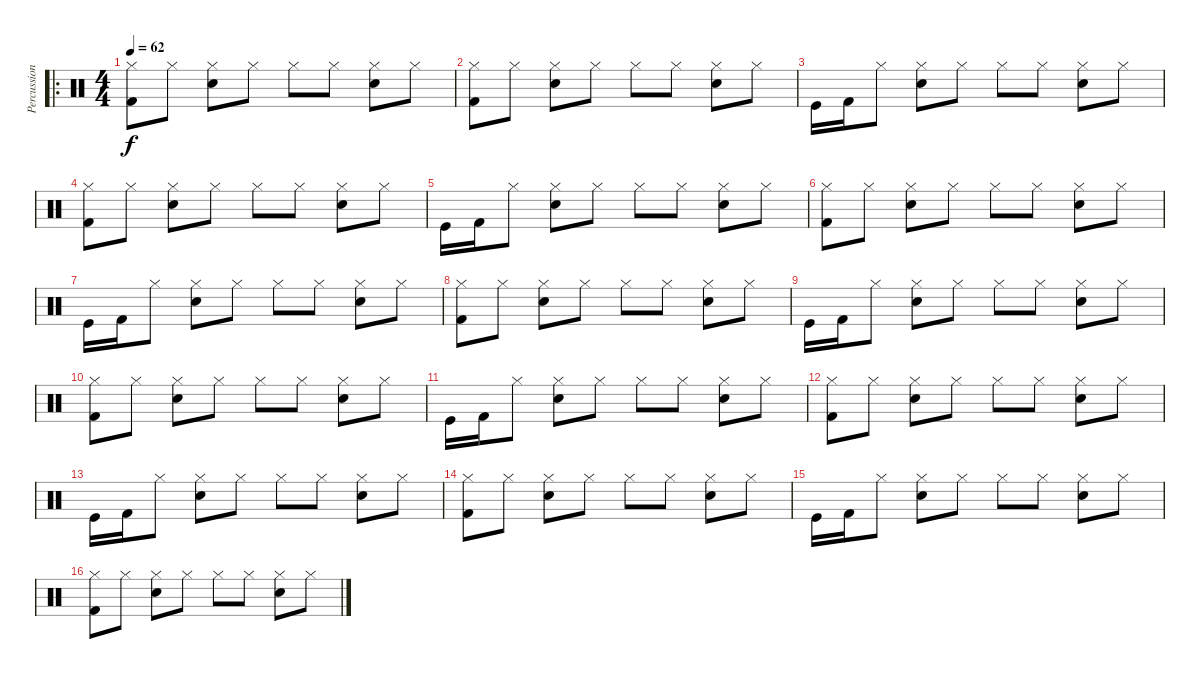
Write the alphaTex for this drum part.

\track ("Percussion" "Percussion") {instrument percussion}
\staff {score}
\articulation defaults
\ro
\ts (4 4)
\tempo 62
\clef neutral
\ks c
("Hi-Hat (closed)" "Kick (hit) 2").8{dy f} "Hi-Hat (closed)".8 ("Hi-Hat (closed)" "Snare (hit) 2").8 "Hi-Hat (closed)".8 "Hi-Hat (closed)".8 "Hi-Hat (closed)".8 ("Hi-Hat (closed)" "Snare (hit) 2").8 "Hi-Hat (closed)".8 |
("Hi-Hat (closed)" "Kick (hit) 2").8 "Hi-Hat (closed)".8 ("Hi-Hat (closed)" "Snare (hit) 2").8 "Hi-Hat (closed)".8 "Hi-Hat (closed)".8 "Hi-Hat (closed)".8 ("Hi-Hat (closed)" "Snare (hit) 2").8 "Hi-Hat (closed)".8 |
"Kick (hit)".16 "Kick (hit) 2".16 "Hi-Hat (closed)".8 ("Hi-Hat (closed)" "Snare (hit) 2").8 "Hi-Hat (closed)".8 "Hi-Hat (closed)".8 "Hi-Hat (closed)".8 ("Hi-Hat (closed)" "Snare (hit) 2").8 "Hi-Hat (closed)".8 |
("Hi-Hat (closed)" "Kick (hit) 2").8 "Hi-Hat (closed)".8 ("Hi-Hat (closed)" "Snare (hit) 2").8 "Hi-Hat (closed)".8 "Hi-Hat (closed)".8 "Hi-Hat (closed)".8 ("Hi-Hat (closed)" "Snare (hit) 2").8 "Hi-Hat (closed)".8 |
"Kick (hit)".16 "Kick (hit) 2".16 "Hi-Hat (closed)".8 ("Hi-Hat (closed)" "Snare (hit) 2").8 "Hi-Hat (closed)".8 "Hi-Hat (closed)".8 "Hi-Hat (closed)".8 ("Hi-Hat (closed)" "Snare (hit) 2").8 "Hi-Hat (closed)".8 |
("Hi-Hat (closed)" "Kick (hit) 2").8 "Hi-Hat (closed)".8 ("Hi-Hat (closed)" "Snare (hit) 2").8 "Hi-Hat (closed)".8 "Hi-Hat (closed)".8 "Hi-Hat (closed)".8 ("Hi-Hat (closed)" "Snare (hit) 2").8 "Hi-Hat (closed)".8 |
"Kick (hit)".16 "Kick (hit) 2".16 "Hi-Hat (closed)".8 ("Hi-Hat (closed)" "Snare (hit) 2").8 "Hi-Hat (closed)".8 "Hi-Hat (closed)".8 "Hi-Hat (closed)".8 ("Hi-Hat (closed)" "Snare (hit) 2").8 "Hi-Hat (closed)".8 |
("Hi-Hat (closed)" "Kick (hit) 2").8 "Hi-Hat (closed)".8 ("Hi-Hat (closed)" "Snare (hit) 2").8 "Hi-Hat (closed)".8 "Hi-Hat (closed)".8 "Hi-Hat (closed)".8 ("Hi-Hat (closed)" "Snare (hit) 2").8 "Hi-Hat (closed)".8 |
"Kick (hit)".16 "Kick (hit) 2".16 "Hi-Hat (closed)".8 ("Hi-Hat (closed)" "Snare (hit) 2").8 "Hi-Hat (closed)".8 "Hi-Hat (closed)".8 "Hi-Hat (closed)".8 ("Hi-Hat (closed)" "Snare (hit) 2").8 "Hi-Hat (closed)".8 |
("Hi-Hat (closed)" "Kick (hit) 2").8 "Hi-Hat (closed)".8 ("Hi-Hat (closed)" "Snare (hit) 2").8 "Hi-Hat (closed)".8 "Hi-Hat (closed)".8 "Hi-Hat (closed)".8 ("Hi-Hat (closed)" "Snare (hit) 2").8 "Hi-Hat (closed)".8 |
"Kick (hit)".16 "Kick (hit) 2".16 "Hi-Hat (closed)".8 ("Hi-Hat (closed)" "Snare (hit) 2").8 "Hi-Hat (closed)".8 "Hi-Hat (closed)".8 "Hi-Hat (closed)".8 ("Hi-Hat (closed)" "Snare (hit) 2").8 "Hi-Hat (closed)".8 |
("Hi-Hat (closed)" "Kick (hit) 2").8 "Hi-Hat (closed)".8 ("Hi-Hat (closed)" "Snare (hit) 2").8 "Hi-Hat (closed)".8 "Hi-Hat (closed)".8 "Hi-Hat (closed)".8 ("Hi-Hat (closed)" "Snare (hit) 2").8 "Hi-Hat (closed)".8 |
"Kick (hit)".16 "Kick (hit) 2".16 "Hi-Hat (closed)".8 ("Hi-Hat (closed)" "Snare (hit) 2").8 "Hi-Hat (closed)".8 "Hi-Hat (closed)".8 "Hi-Hat (closed)".8 ("Hi-Hat (closed)" "Snare (hit) 2").8 "Hi-Hat (closed)".8 |
("Hi-Hat (closed)" "Kick (hit) 2").8 "Hi-Hat (closed)".8 ("Hi-Hat (closed)" "Snare (hit) 2").8 "Hi-Hat (closed)".8 "Hi-Hat (closed)".8 "Hi-Hat (closed)".8 ("Hi-Hat (closed)" "Snare (hit) 2").8 "Hi-Hat (closed)".8 |
"Kick (hit)".16 "Kick (hit) 2".16 "Hi-Hat (closed)".8 ("Hi-Hat (closed)" "Snare (hit) 2").8 "Hi-Hat (closed)".8 "Hi-Hat (closed)".8 "Hi-Hat (closed)".8 ("Hi-Hat (closed)" "Snare (hit) 2").8 "Hi-Hat (closed)".8 |
("Hi-Hat (closed)" "Kick (hit) 2").8 "Hi-Hat (closed)".8 ("Hi-Hat (closed)" "Snare (hit) 2").8 "Hi-Hat (closed)".8 "Hi-Hat (closed)".8 "Hi-Hat (closed)".8 ("Hi-Hat (closed)" "Snare (hit) 2").8 "Hi-Hat (closed)".8
